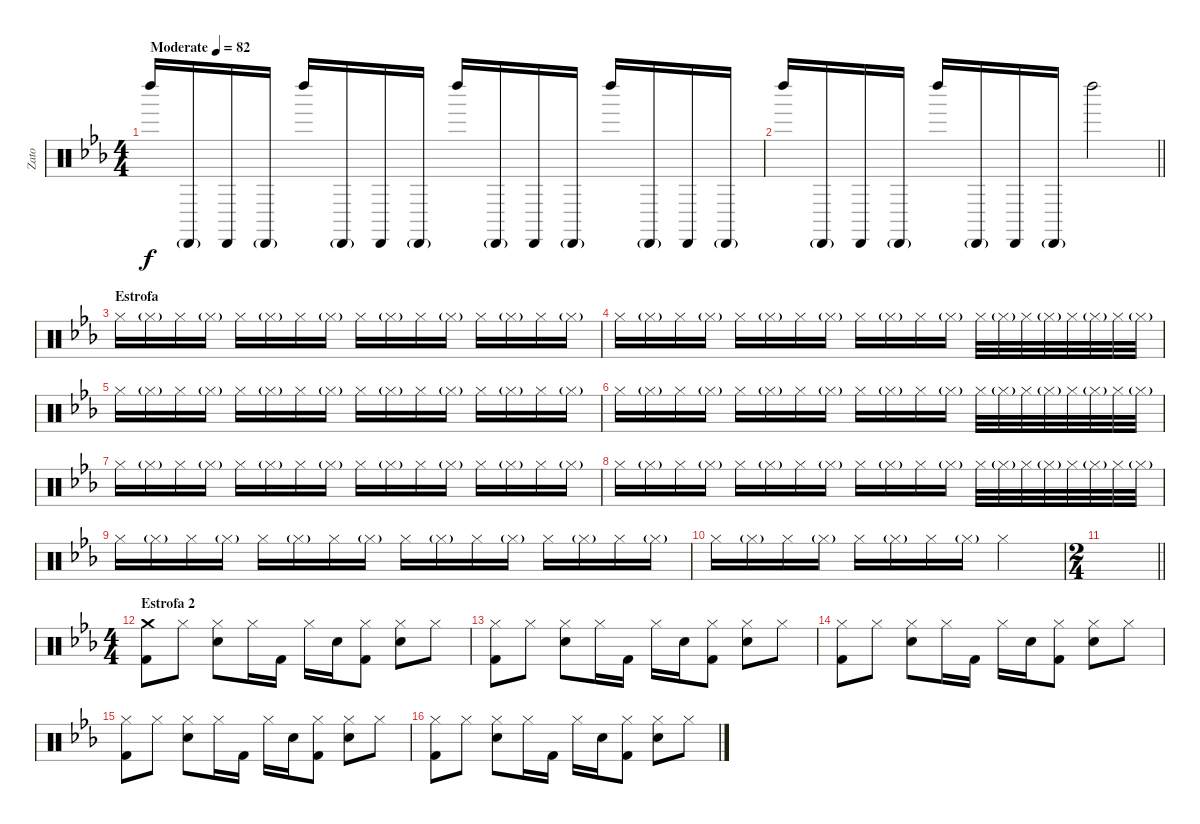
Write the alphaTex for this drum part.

\track ("Zato" "Zato") {instrument percussion}
\staff {score}
\articulation defaults
\ts (4 4)
\tempo (82 "Moderate")
\clef neutral
\ks cminor "Left Maraca (hit)".16{dy f} "Cabasa (hit)"{g}.16 "Cabasa (hit)".16 "Cabasa (hit)"{g}.16 "Left Maraca (hit)".16 "Cabasa (hit)"{g}.16 "Cabasa (hit)".16 "Cabasa (hit)"{g}.16 "Left Maraca (hit)".16 "Cabasa (hit)"{g}.16 "Cabasa (hit)".16 "Cabasa (hit)"{g}.16 "Left Maraca (hit)".16 "Cabasa (hit)"{g}.16 "Cabasa (hit)".16 "Cabasa (hit)"{g}.16
|
\barLineRight lightlight "Left Maraca (hit)".16 "Cabasa (hit)"{g}.16 "Cabasa (hit)".16 "Cabasa (hit)"{g}.16 "Left Maraca (hit)".16 "Cabasa (hit)"{g}.16 "Cabasa (hit)".16 "Cabasa (hit)"{g}.16 "Left Maraca (hit)".2
|
\section ("" "Estrofa")
"Hi-Hat (closed)".16 "Hi-Hat (closed)"{g}.16 "Hi-Hat (closed)".16 "Hi-Hat (closed)"{g}.16 "Hi-Hat (closed)".16 "Hi-Hat (closed)"{g}.16 "Hi-Hat (closed)".16 "Hi-Hat (closed)"{g}.16 "Hi-Hat (closed)".16 "Hi-Hat (closed)"{g}.16 "Hi-Hat (closed)".16 "Hi-Hat (closed)"{g}.16 "Hi-Hat (closed)".16 "Hi-Hat (closed)"{g}.16 "Hi-Hat (closed)".16 "Hi-Hat (closed)"{g}.16 |
"Hi-Hat (closed)".16 "Hi-Hat (closed)"{g}.16 "Hi-Hat (closed)".16 "Hi-Hat (closed)"{g}.16 "Hi-Hat (closed)".16 "Hi-Hat (closed)"{g}.16 "Hi-Hat (closed)".16 "Hi-Hat (closed)"{g}.16 "Hi-Hat (closed)".16 "Hi-Hat (closed)"{g}.16 "Hi-Hat (closed)".16 "Hi-Hat (closed)"{g}.16 "Hi-Hat (closed)".32 "Hi-Hat (closed)"{g}.32 "Hi-Hat (closed)".32 "Hi-Hat (closed)"{g}.32 "Hi-Hat (closed)".32 "Hi-Hat (closed)"{g}.32 "Hi-Hat (closed)".32 "Hi-Hat (closed)"{g}.32 |
"Hi-Hat (closed)".16 "Hi-Hat (closed)"{g}.16 "Hi-Hat (closed)".16 "Hi-Hat (closed)"{g}.16 "Hi-Hat (closed)".16 "Hi-Hat (closed)"{g}.16 "Hi-Hat (closed)".16 "Hi-Hat (closed)"{g}.16 "Hi-Hat (closed)".16 "Hi-Hat (closed)"{g}.16 "Hi-Hat (closed)".16 "Hi-Hat (closed)"{g}.16 "Hi-Hat (closed)".16 "Hi-Hat (closed)"{g}.16 "Hi-Hat (closed)".16 "Hi-Hat (closed)"{g}.16 |
"Hi-Hat (closed)".16 "Hi-Hat (closed)"{g}.16 "Hi-Hat (closed)".16 "Hi-Hat (closed)"{g}.16 "Hi-Hat (closed)".16 "Hi-Hat (closed)"{g}.16 "Hi-Hat (closed)".16 "Hi-Hat (closed)"{g}.16 "Hi-Hat (closed)".16 "Hi-Hat (closed)"{g}.16 "Hi-Hat (closed)".16 "Hi-Hat (closed)"{g}.16 "Hi-Hat (closed)".32 "Hi-Hat (closed)"{g}.32 "Hi-Hat (closed)".32 "Hi-Hat (closed)"{g}.32 "Hi-Hat (closed)".32 "Hi-Hat (closed)"{g}.32 "Hi-Hat (closed)".32 "Hi-Hat (closed)"{g}.32 |
"Hi-Hat (closed)".16 "Hi-Hat (closed)"{g}.16 "Hi-Hat (closed)".16 "Hi-Hat (closed)"{g}.16 "Hi-Hat (closed)".16 "Hi-Hat (closed)"{g}.16 "Hi-Hat (closed)".16 "Hi-Hat (closed)"{g}.16 "Hi-Hat (closed)".16 "Hi-Hat (closed)"{g}.16 "Hi-Hat (closed)".16 "Hi-Hat (closed)"{g}.16 "Hi-Hat (closed)".16 "Hi-Hat (closed)"{g}.16 "Hi-Hat (closed)".16 "Hi-Hat (closed)"{g}.16 |
"Hi-Hat (closed)".16 "Hi-Hat (closed)"{g}.16 "Hi-Hat (closed)".16 "Hi-Hat (closed)"{g}.16 "Hi-Hat (closed)".16 "Hi-Hat (closed)"{g}.16 "Hi-Hat (closed)".16 "Hi-Hat (closed)"{g}.16 "Hi-Hat (closed)".16 "Hi-Hat (closed)"{g}.16 "Hi-Hat (closed)".16 "Hi-Hat (closed)"{g}.16 "Hi-Hat (closed)".32 "Hi-Hat (closed)"{g}.32 "Hi-Hat (closed)".32 "Hi-Hat (closed)"{g}.32 "Hi-Hat (closed)".32 "Hi-Hat (closed)"{g}.32 "Hi-Hat (closed)".32 "Hi-Hat (closed)"{g}.32 |
"Hi-Hat (closed)".16 "Hi-Hat (closed)"{g}.16 "Hi-Hat (closed)".16 "Hi-Hat (closed)"{g}.16 "Hi-Hat (closed)".16 "Hi-Hat (closed)"{g}.16 "Hi-Hat (closed)".16 "Hi-Hat (closed)"{g}.16 "Hi-Hat (closed)".16 "Hi-Hat (closed)"{g}.16 "Hi-Hat (closed)".16 "Hi-Hat (closed)"{g}.16 "Hi-Hat (closed)".16 "Hi-Hat (closed)"{g}.16 "Hi-Hat (closed)".16 "Hi-Hat (closed)"{g}.16 |
"Hi-Hat (closed)".16 "Hi-Hat (closed)"{g}.16 "Hi-Hat (closed)".16 "Hi-Hat (closed)"{g}.16 "Hi-Hat (closed)".16 "Hi-Hat (closed)"{g}.16 "Hi-Hat (closed)".16 "Hi-Hat (closed)"{g}.16 "Hi-Hat (closed)".2 |
\ts (2 4)
\barLineRight lightlight
|
\ts (4 4)
\section ("" "Estrofa 2")
("Crash medium (hit)" "Kick (hit) 2").8{volume 13} "Hi-Hat (closed)".8 ("Hi-Hat (closed)" "Electric Snare (hit)").8 "Hi-Hat (closed)".16 "Kick (hit) 2".16 "Hi-Hat (closed)".16 "Electric Snare (hit)".16 ("Hi-Hat (closed)" "Kick (hit) 2").8 ("Hi-Hat (closed)" "Electric Snare (hit)").8 "Hi-Hat (closed)".8 |
("Hi-Hat (closed)" "Kick (hit) 2").8 "Hi-Hat (closed)".8 ("Hi-Hat (closed)" "Electric Snare (hit)").8 "Hi-Hat (closed)".16 "Kick (hit) 2".16 "Hi-Hat (closed)".16 "Electric Snare (hit)".16 ("Hi-Hat (closed)" "Kick (hit) 2").8 ("Hi-Hat (closed)" "Electric Snare (hit)").8 "Hi-Hat (closed)".8 |
("Hi-Hat (closed)" "Kick (hit) 2").8 "Hi-Hat (closed)".8 ("Hi-Hat (closed)" "Electric Snare (hit)").8 "Hi-Hat (closed)".16 "Kick (hit) 2".16 "Hi-Hat (closed)".16 "Electric Snare (hit)".16 ("Hi-Hat (closed)" "Kick (hit) 2").8 ("Hi-Hat (closed)" "Electric Snare (hit)").8 "Hi-Hat (closed)".8 |
("Hi-Hat (closed)" "Kick (hit) 2").8 "Hi-Hat (closed)".8 ("Hi-Hat (closed)" "Electric Snare (hit)").8 "Hi-Hat (closed)".16 "Kick (hit) 2".16 "Hi-Hat (closed)".16 "Electric Snare (hit)".16 ("Hi-Hat (closed)" "Kick (hit) 2").8 ("Hi-Hat (closed)" "Electric Snare (hit)").8 "Hi-Hat (closed)".8 |
("Hi-Hat (closed)" "Kick (hit) 2").8 "Hi-Hat (closed)".8 ("Hi-Hat (closed)" "Electric Snare (hit)").8 "Hi-Hat (closed)".16 "Kick (hit) 2".16 "Hi-Hat (closed)".16 "Electric Snare (hit)".16 ("Hi-Hat (closed)" "Kick (hit) 2").8 ("Hi-Hat (closed)" "Electric Snare (hit)").8 "Hi-Hat (closed)".8
